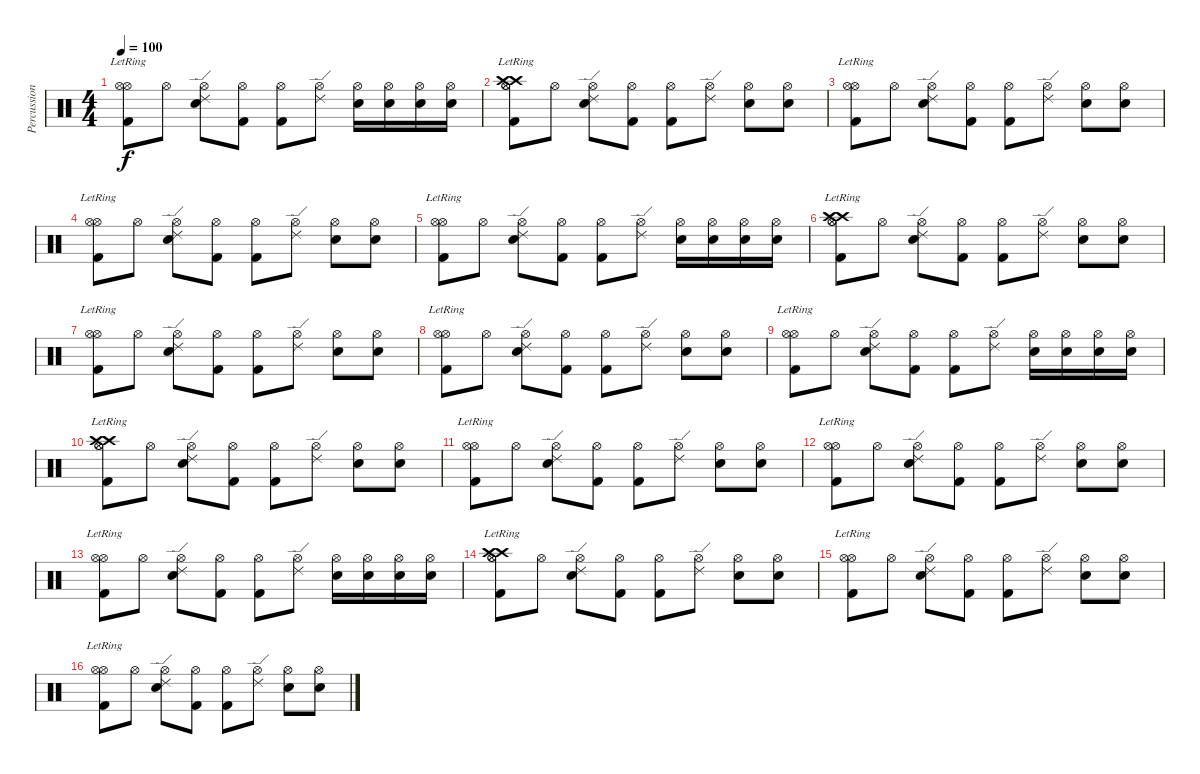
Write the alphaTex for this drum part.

\track ("Percussion" "Percussion") {instrument percussion}
\staff {score}
\articulation defaults
\ts (4 4)
\tempo 100
\clef neutral
\ks c
("Hi-Hat (open)" "Kick (hit) 2"{lr} "Hi-Hat (open)"{lr}).8{dy f} "Hi-Hat (open)".8 ("Ride (edge) 2" "Hi-Hat (open)" "Electric Snare (hit)").8 ("Hi-Hat (open)" "Kick (hit) 2").8 ("Hi-Hat (open)" "Kick (hit) 2").8 ("Ride (edge) 2" "Hi-Hat (open)").8 ("Hi-Hat (open)" "Electric Snare (hit)").16 ("Hi-Hat (open)" "Electric Snare (hit)").16 ("Hi-Hat (open)" "Electric Snare (hit)").16 ("Hi-Hat (open)" "Electric Snare (hit)").16 |
("Crash high (hit)"{lr} "Hi-Hat (open)" "Kick (hit) 2"{lr} "Hi-Hat (open)"{lr} "Crash high (hit)"{lr}).8 "Hi-Hat (open)".8 ("Ride (edge) 2" "Hi-Hat (open)" "Electric Snare (hit)").8 ("Hi-Hat (open)" "Kick (hit) 2").8 ("Hi-Hat (open)" "Kick (hit) 2").8 ("Ride (edge) 2" "Hi-Hat (open)").8 ("Hi-Hat (open)" "Electric Snare (hit)").8 ("Hi-Hat (open)" "Electric Snare (hit)").8 |
("Hi-Hat (open)" "Kick (hit) 2"{lr} "Hi-Hat (open)"{lr}).8 "Hi-Hat (open)".8 ("Ride (edge) 2" "Hi-Hat (open)" "Electric Snare (hit)").8 ("Hi-Hat (open)" "Kick (hit) 2").8 ("Hi-Hat (open)" "Kick (hit) 2").8 ("Ride (edge) 2" "Hi-Hat (open)").8 ("Hi-Hat (open)" "Electric Snare (hit)").8 ("Hi-Hat (open)" "Electric Snare (hit)").8 |
("Hi-Hat (open)" "Kick (hit) 2"{lr} "Hi-Hat (open)"{lr}).8 "Hi-Hat (open)".8 ("Ride (edge) 2" "Hi-Hat (open)" "Electric Snare (hit)").8 ("Hi-Hat (open)" "Kick (hit) 2").8 ("Hi-Hat (open)" "Kick (hit) 2").8 ("Ride (edge) 2" "Hi-Hat (open)").8 ("Hi-Hat (open)" "Electric Snare (hit)").8 ("Hi-Hat (open)" "Electric Snare (hit)").8 |
("Hi-Hat (open)" "Kick (hit) 2"{lr} "Hi-Hat (open)"{lr}).8 "Hi-Hat (open)".8 ("Ride (edge) 2" "Hi-Hat (open)" "Electric Snare (hit)").8 ("Hi-Hat (open)" "Kick (hit) 2").8 ("Hi-Hat (open)" "Kick (hit) 2").8 ("Ride (edge) 2" "Hi-Hat (open)").8 ("Hi-Hat (open)" "Electric Snare (hit)").16 ("Hi-Hat (open)" "Electric Snare (hit)").16 ("Hi-Hat (open)" "Electric Snare (hit)").16 ("Hi-Hat (open)" "Electric Snare (hit)").16 |
("Crash high (hit)"{lr} "Hi-Hat (open)" "Kick (hit) 2"{lr} "Hi-Hat (open)"{lr} "Crash high (hit)"{lr}).8 "Hi-Hat (open)".8 ("Ride (edge) 2" "Hi-Hat (open)" "Electric Snare (hit)").8 ("Hi-Hat (open)" "Kick (hit) 2").8 ("Hi-Hat (open)" "Kick (hit) 2").8 ("Ride (edge) 2" "Hi-Hat (open)").8 ("Hi-Hat (open)" "Electric Snare (hit)").8 ("Hi-Hat (open)" "Electric Snare (hit)").8 |
("Hi-Hat (open)" "Kick (hit) 2"{lr} "Hi-Hat (open)"{lr}).8 "Hi-Hat (open)".8 ("Ride (edge) 2" "Hi-Hat (open)" "Electric Snare (hit)").8 ("Hi-Hat (open)" "Kick (hit) 2").8 ("Hi-Hat (open)" "Kick (hit) 2").8 ("Ride (edge) 2" "Hi-Hat (open)").8 ("Hi-Hat (open)" "Electric Snare (hit)").8 ("Hi-Hat (open)" "Electric Snare (hit)").8 |
("Hi-Hat (open)" "Kick (hit) 2"{lr} "Hi-Hat (open)"{lr}).8 "Hi-Hat (open)".8 ("Ride (edge) 2" "Hi-Hat (open)" "Electric Snare (hit)").8 ("Hi-Hat (open)" "Kick (hit) 2").8 ("Hi-Hat (open)" "Kick (hit) 2").8 ("Ride (edge) 2" "Hi-Hat (open)").8 ("Hi-Hat (open)" "Electric Snare (hit)").8 ("Hi-Hat (open)" "Electric Snare (hit)").8 |
("Hi-Hat (open)" "Kick (hit) 2"{lr} "Hi-Hat (open)"{lr}).8 "Hi-Hat (open)".8 ("Ride (edge) 2" "Hi-Hat (open)" "Electric Snare (hit)").8 ("Hi-Hat (open)" "Kick (hit) 2").8 ("Hi-Hat (open)" "Kick (hit) 2").8 ("Ride (edge) 2" "Hi-Hat (open)").8 ("Hi-Hat (open)" "Electric Snare (hit)").16 ("Hi-Hat (open)" "Electric Snare (hit)").16 ("Hi-Hat (open)" "Electric Snare (hit)").16 ("Hi-Hat (open)" "Electric Snare (hit)").16 |
("Crash high (hit)"{lr} "Hi-Hat (open)" "Kick (hit) 2"{lr} "Hi-Hat (open)"{lr} "Crash high (hit)"{lr}).8 "Hi-Hat (open)".8 ("Ride (edge) 2" "Hi-Hat (open)" "Electric Snare (hit)").8 ("Hi-Hat (open)" "Kick (hit) 2").8 ("Hi-Hat (open)" "Kick (hit) 2").8 ("Ride (edge) 2" "Hi-Hat (open)").8 ("Hi-Hat (open)" "Electric Snare (hit)").8 ("Hi-Hat (open)" "Electric Snare (hit)").8 |
("Hi-Hat (open)" "Kick (hit) 2"{lr} "Hi-Hat (open)"{lr}).8 "Hi-Hat (open)".8 ("Ride (edge) 2" "Hi-Hat (open)" "Electric Snare (hit)").8 ("Hi-Hat (open)" "Kick (hit) 2").8 ("Hi-Hat (open)" "Kick (hit) 2").8 ("Ride (edge) 2" "Hi-Hat (open)").8 ("Hi-Hat (open)" "Electric Snare (hit)").8 ("Hi-Hat (open)" "Electric Snare (hit)").8 |
("Hi-Hat (open)" "Kick (hit) 2"{lr} "Hi-Hat (open)"{lr}).8 "Hi-Hat (open)".8 ("Ride (edge) 2" "Hi-Hat (open)" "Electric Snare (hit)").8 ("Hi-Hat (open)" "Kick (hit) 2").8 ("Hi-Hat (open)" "Kick (hit) 2").8 ("Ride (edge) 2" "Hi-Hat (open)").8 ("Hi-Hat (open)" "Electric Snare (hit)").8 ("Hi-Hat (open)" "Electric Snare (hit)").8 |
("Hi-Hat (open)" "Kick (hit) 2"{lr} "Hi-Hat (open)"{lr}).8 "Hi-Hat (open)".8 ("Ride (edge) 2" "Hi-Hat (open)" "Electric Snare (hit)").8 ("Hi-Hat (open)" "Kick (hit) 2").8 ("Hi-Hat (open)" "Kick (hit) 2").8 ("Ride (edge) 2" "Hi-Hat (open)").8 ("Hi-Hat (open)" "Electric Snare (hit)").16 ("Hi-Hat (open)" "Electric Snare (hit)").16 ("Hi-Hat (open)" "Electric Snare (hit)").16 ("Hi-Hat (open)" "Electric Snare (hit)").16 |
("Crash high (hit)"{lr} "Hi-Hat (open)" "Kick (hit) 2"{lr} "Hi-Hat (open)"{lr} "Crash high (hit)"{lr}).8 "Hi-Hat (open)".8 ("Ride (edge) 2" "Hi-Hat (open)" "Electric Snare (hit)").8 ("Hi-Hat (open)" "Kick (hit) 2").8 ("Hi-Hat (open)" "Kick (hit) 2").8 ("Ride (edge) 2" "Hi-Hat (open)").8 ("Hi-Hat (open)" "Electric Snare (hit)").8 ("Hi-Hat (open)" "Electric Snare (hit)").8 |
("Hi-Hat (open)" "Kick (hit) 2"{lr} "Hi-Hat (open)"{lr}).8 "Hi-Hat (open)".8 ("Ride (edge) 2" "Hi-Hat (open)" "Electric Snare (hit)").8 ("Hi-Hat (open)" "Kick (hit) 2").8 ("Hi-Hat (open)" "Kick (hit) 2").8 ("Ride (edge) 2" "Hi-Hat (open)").8 ("Hi-Hat (open)" "Electric Snare (hit)").8 ("Hi-Hat (open)" "Electric Snare (hit)").8 |
("Hi-Hat (open)" "Kick (hit) 2"{lr} "Hi-Hat (open)"{lr}).8 "Hi-Hat (open)".8 ("Ride (edge) 2" "Hi-Hat (open)" "Electric Snare (hit)").8 ("Hi-Hat (open)" "Kick (hit) 2").8 ("Hi-Hat (open)" "Kick (hit) 2").8 ("Ride (edge) 2" "Hi-Hat (open)").8 ("Hi-Hat (open)" "Electric Snare (hit)").8 ("Hi-Hat (open)" "Electric Snare (hit)").8
